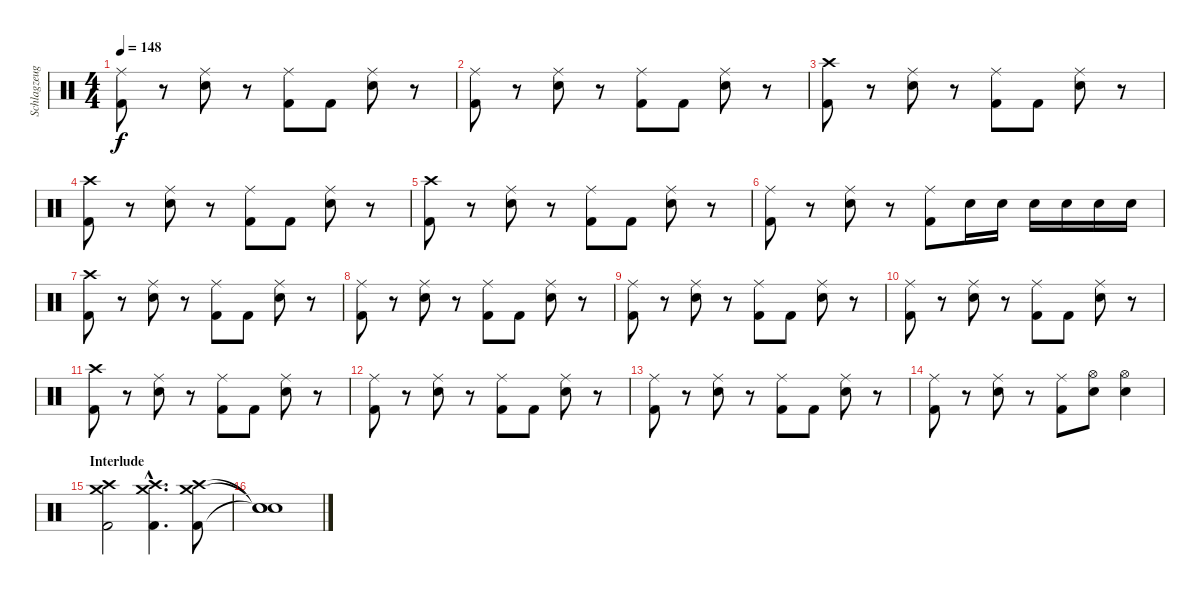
\track ("Schlagzeug" "Schlagzeug") {instrument percussion}
\staff {score}
\articulation defaults
\ts (4 4)
\tempo 148
\clef neutral
\ks c
("Ride (middle)" "Kick (hit) 2").8{dy f} r.8 ("Ride (middle)" "Electric Snare (hit)").8 r.8 ("Ride (middle)" "Kick (hit) 2").8 "Kick (hit) 2".8 ("Ride (middle)" "Electric Snare (hit)").8 r.8 |
("Ride (middle)" "Kick (hit) 2").8 r.8 ("Ride (middle)" "Electric Snare (hit)").8 r.8 ("Ride (middle)" "Kick (hit) 2").8 "Kick (hit) 2".8 ("Ride (middle)" "Electric Snare (hit)").8 r.8 |
("Crash high (hit)" "Kick (hit) 2").8 r.8 ("Ride (middle)" "Electric Snare (hit)").8 r.8 ("Ride (middle)" "Kick (hit) 2").8 "Kick (hit) 2".8 ("Ride (middle)" "Electric Snare (hit)").8 r.8 |
("Crash high (hit)" "Kick (hit) 2").8 r.8 ("Ride (middle)" "Electric Snare (hit)").8 r.8 ("Ride (middle)" "Kick (hit) 2").8 "Kick (hit) 2".8 ("Ride (middle)" "Electric Snare (hit)").8 r.8 |
("Crash high (hit)" "Kick (hit) 2").8 r.8 ("Ride (middle)" "Electric Snare (hit)").8 r.8 ("Ride (middle)" "Kick (hit) 2").8 "Kick (hit) 2".8 ("Ride (middle)" "Electric Snare (hit)").8 r.8 |
("Ride (middle)" "Kick (hit) 2").8 r.8 ("Ride (middle)" "Electric Snare (hit)").8 r.8 ("Ride (middle)" "Kick (hit) 2").8 "Electric Snare (hit)".16 "Electric Snare (hit)".16 "Electric Snare (hit)".16 "Electric Snare (hit)".16 "Electric Snare (hit)".16 "Electric Snare (hit)".16 |
("Crash high (hit)" "Kick (hit) 2").8 r.8 ("Ride (middle)" "Electric Snare (hit)").8 r.8 ("Ride (middle)" "Kick (hit) 2").8 "Kick (hit) 2".8 ("Ride (middle)" "Electric Snare (hit)").8 r.8 |
("Ride (middle)" "Kick (hit) 2").8 r.8 ("Ride (middle)" "Electric Snare (hit)").8 r.8 ("Ride (middle)" "Kick (hit) 2").8 "Kick (hit) 2".8 ("Ride (middle)" "Electric Snare (hit)").8 r.8 |
("Ride (middle)" "Kick (hit) 2").8 r.8 ("Ride (middle)" "Electric Snare (hit)").8 r.8 ("Ride (middle)" "Kick (hit) 2").8 "Kick (hit) 2".8 ("Ride (middle)" "Electric Snare (hit)").8 r.8 |
("Ride (middle)" "Kick (hit) 2").8 r.8 ("Ride (middle)" "Electric Snare (hit)").8 r.8 ("Ride (middle)" "Kick (hit) 2").8 "Kick (hit) 2".8 ("Ride (middle)" "Electric Snare (hit)").8 r.8 |
("Crash high (hit)" "Kick (hit) 2").8 r.8 ("Ride (middle)" "Electric Snare (hit)").8 r.8 ("Ride (middle)" "Kick (hit) 2").8 "Kick (hit) 2".8 ("Ride (middle)" "Electric Snare (hit)").8 r.8 |
("Ride (middle)" "Kick (hit) 2").8 r.8 ("Ride (middle)" "Electric Snare (hit)").8 r.8 ("Ride (middle)" "Kick (hit) 2").8 "Kick (hit) 2".8 ("Ride (middle)" "Electric Snare (hit)").8 r.8 |
("Ride (middle)" "Kick (hit) 2").8 r.8 ("Ride (middle)" "Electric Snare (hit)").8 r.8 ("Ride (middle)" "Kick (hit) 2").8 "Kick (hit) 2".8 ("Ride (middle)" "Electric Snare (hit)").8 r.8 |
("Ride (middle)" "Kick (hit) 2").8 r.8 ("Ride (middle)" "Electric Snare (hit)").8 r.8 ("Ride (middle)" "Kick (hit) 2").8 ("Hi-Hat (open)" "Electric Snare (hit)").8 ("Hi-Hat (open)" "Electric Snare (hit)").4 |
\section ("" "Interlude")
("Crash high (hit)" "Crash medium (hit)" "Kick (hit) 2").2 ("Crash high (hit)"{hac} "Crash medium (hit)"{hac} "Kick (hit) 2"{hac}).4{d} ("Crash high (hit)" "Crash medium (hit)" "Kick (hit) 2").8 |
("Snare (hit)"{t} "Snare (hit)"{t} "Snare (hit)"{t}).1
